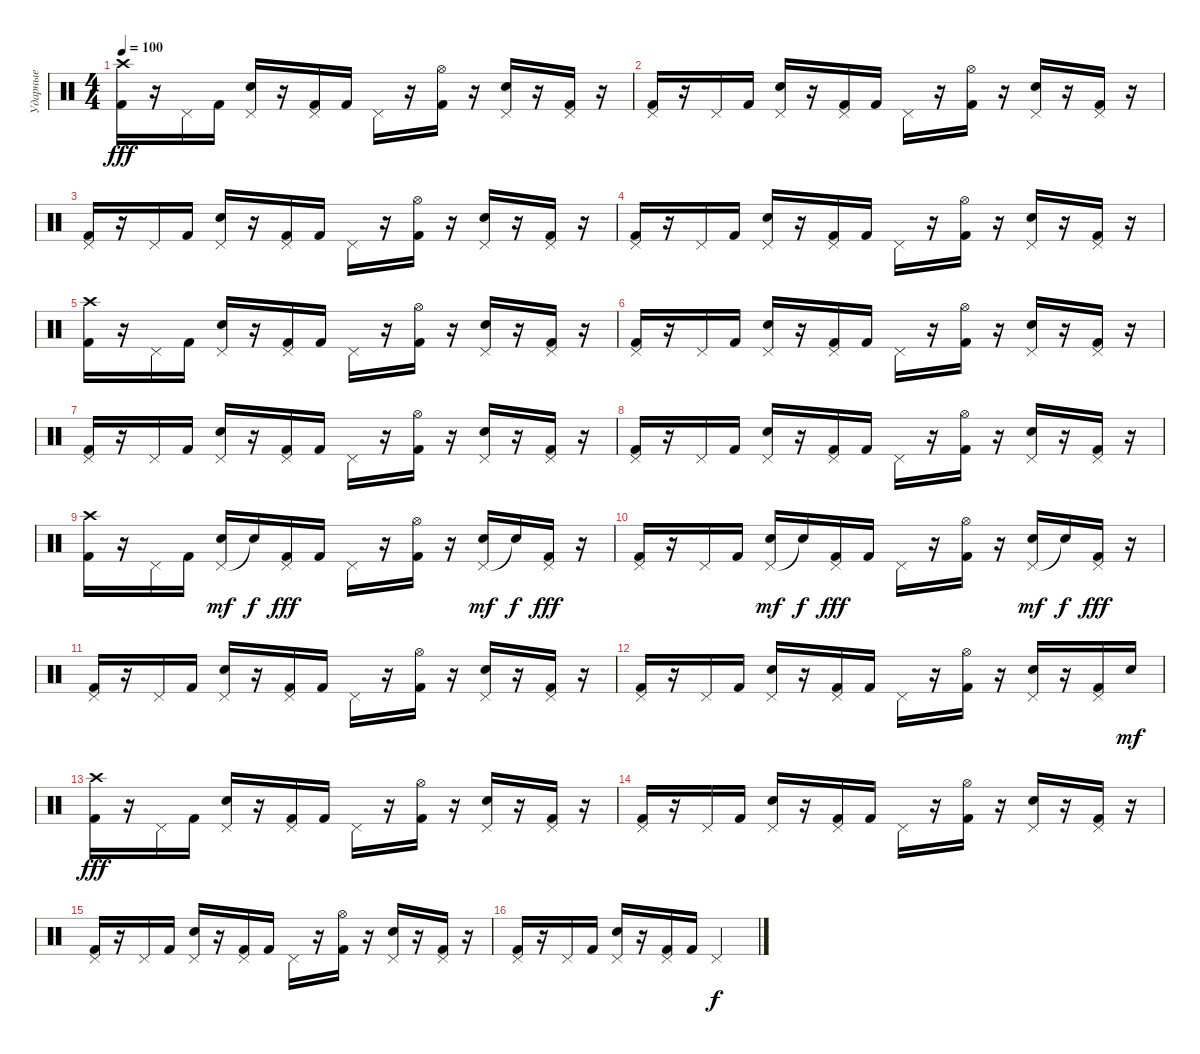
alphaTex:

\track ("Ударные" "Ударные") {instrument percussion}
\staff {score}
\articulation defaults
\ts (4 4)
\tempo 100
\clef neutral
\ks c
("Crash high (hit)" "Kick (hit) 2").16{dy fff} r.16 "Pedal Hi-Hat (hit)".16 "Kick (hit) 2".16 ("Pedal Hi-Hat (hit)" "Snare (hit) 2").16 r.16 ("Pedal Hi-Hat (hit)" "Kick (hit) 2").16 "Kick (hit) 2".16 "Pedal Hi-Hat (hit)".16 r.16 ("Hi-Hat (open)" "Kick (hit) 2").16 r.16 ("Pedal Hi-Hat (hit)" "Snare (hit) 2").16 r.16 ("Pedal Hi-Hat (hit)" "Kick (hit) 2").16 r.16 |
("Pedal Hi-Hat (hit)" "Kick (hit) 2").16 r.16 "Pedal Hi-Hat (hit)".16 "Kick (hit) 2".16 ("Pedal Hi-Hat (hit)" "Snare (hit) 2").16 r.16 ("Pedal Hi-Hat (hit)" "Kick (hit) 2").16 "Kick (hit) 2".16 "Pedal Hi-Hat (hit)".16 r.16 ("Hi-Hat (open)" "Kick (hit) 2").16 r.16 ("Pedal Hi-Hat (hit)" "Snare (hit) 2").16 r.16 ("Pedal Hi-Hat (hit)" "Kick (hit) 2").16 r.16 |
("Pedal Hi-Hat (hit)" "Kick (hit) 2").16 r.16 "Pedal Hi-Hat (hit)".16 "Kick (hit) 2".16 ("Pedal Hi-Hat (hit)" "Snare (hit) 2").16 r.16 ("Pedal Hi-Hat (hit)" "Kick (hit) 2").16 "Kick (hit) 2".16 "Pedal Hi-Hat (hit)".16 r.16 ("Hi-Hat (open)" "Kick (hit) 2").16 r.16 ("Pedal Hi-Hat (hit)" "Snare (hit) 2").16 r.16 ("Pedal Hi-Hat (hit)" "Kick (hit) 2").16 r.16 |
("Pedal Hi-Hat (hit)" "Kick (hit) 2").16 r.16 "Pedal Hi-Hat (hit)".16 "Kick (hit) 2".16 ("Pedal Hi-Hat (hit)" "Snare (hit) 2").16 r.16 ("Pedal Hi-Hat (hit)" "Kick (hit) 2").16 "Kick (hit) 2".16 "Pedal Hi-Hat (hit)".16 r.16 ("Hi-Hat (open)" "Kick (hit) 2").16 r.16 ("Pedal Hi-Hat (hit)" "Snare (hit) 2").16 r.16 ("Pedal Hi-Hat (hit)" "Kick (hit) 2").16 r.16 |
("Crash high (hit)" "Kick (hit) 2").16 r.16 "Pedal Hi-Hat (hit)".16 "Kick (hit) 2".16 ("Pedal Hi-Hat (hit)" "Snare (hit) 2").16 r.16 ("Pedal Hi-Hat (hit)" "Kick (hit) 2").16 "Kick (hit) 2".16 "Pedal Hi-Hat (hit)".16 r.16 ("Hi-Hat (open)" "Kick (hit) 2").16 r.16 ("Pedal Hi-Hat (hit)" "Snare (hit) 2").16 r.16 ("Pedal Hi-Hat (hit)" "Kick (hit) 2").16 r.16 |
("Pedal Hi-Hat (hit)" "Kick (hit) 2").16 r.16 "Pedal Hi-Hat (hit)".16 "Kick (hit) 2".16 ("Pedal Hi-Hat (hit)" "Snare (hit) 2").16 r.16 ("Pedal Hi-Hat (hit)" "Kick (hit) 2").16 "Kick (hit) 2".16 "Pedal Hi-Hat (hit)".16 r.16 ("Hi-Hat (open)" "Kick (hit) 2").16 r.16 ("Pedal Hi-Hat (hit)" "Snare (hit) 2").16 r.16 ("Pedal Hi-Hat (hit)" "Kick (hit) 2").16 r.16 |
("Pedal Hi-Hat (hit)" "Kick (hit) 2").16 r.16 "Pedal Hi-Hat (hit)".16 "Kick (hit) 2".16 ("Pedal Hi-Hat (hit)" "Snare (hit) 2").16 r.16 ("Pedal Hi-Hat (hit)" "Kick (hit) 2").16 "Kick (hit) 2".16 "Pedal Hi-Hat (hit)".16 r.16 ("Hi-Hat (open)" "Kick (hit) 2").16 r.16 ("Pedal Hi-Hat (hit)" "Snare (hit) 2").16 r.16 ("Pedal Hi-Hat (hit)" "Kick (hit) 2").16 r.16 |
("Pedal Hi-Hat (hit)" "Kick (hit) 2").16 r.16 "Pedal Hi-Hat (hit)".16 "Kick (hit) 2".16 ("Pedal Hi-Hat (hit)" "Snare (hit) 2").16 r.16 ("Pedal Hi-Hat (hit)" "Kick (hit) 2").16 "Kick (hit) 2".16 "Pedal Hi-Hat (hit)".16 r.16 ("Hi-Hat (open)" "Kick (hit) 2").16 r.16 ("Pedal Hi-Hat (hit)" "Snare (hit) 2").16 r.16 ("Pedal Hi-Hat (hit)" "Kick (hit) 2").16 r.16 |
("Crash high (hit)" "Kick (hit) 2").16 r.16 "Pedal Hi-Hat (hit)".16 "Kick (hit) 2".16 ("Pedal Hi-Hat (hit)" "Snare (hit) 2").16{dy mf} "Snare (hit)"{t}.16{dy f} ("Pedal Hi-Hat (hit)" "Kick (hit) 2").16{dy fff} "Kick (hit) 2".16 "Pedal Hi-Hat (hit)".16 r.16 ("Hi-Hat (open)" "Kick (hit) 2").16 r.16 ("Pedal Hi-Hat (hit)" "Snare (hit) 2").16{dy mf} "Snare (hit)"{t}.16{dy f} ("Pedal Hi-Hat (hit)" "Kick (hit) 2").16{dy fff} r.16 |
("Pedal Hi-Hat (hit)" "Kick (hit) 2").16 r.16 "Pedal Hi-Hat (hit)".16 "Kick (hit) 2".16 ("Pedal Hi-Hat (hit)" "Snare (hit) 2").16{dy mf} "Snare (hit)"{t}.16{dy f} ("Pedal Hi-Hat (hit)" "Kick (hit) 2").16{dy fff} "Kick (hit) 2".16 "Pedal Hi-Hat (hit)".16 r.16 ("Hi-Hat (open)" "Kick (hit) 2").16 r.16 ("Pedal Hi-Hat (hit)" "Snare (hit) 2").16{dy mf} "Snare (hit)"{t}.16{dy f} ("Pedal Hi-Hat (hit)" "Kick (hit) 2").16{dy fff} r.16 |
("Pedal Hi-Hat (hit)" "Kick (hit) 2").16 r.16 "Pedal Hi-Hat (hit)".16 "Kick (hit) 2".16 ("Pedal Hi-Hat (hit)" "Snare (hit) 2").16 r.16 ("Pedal Hi-Hat (hit)" "Kick (hit) 2").16 "Kick (hit) 2".16 "Pedal Hi-Hat (hit)".16 r.16 ("Hi-Hat (open)" "Kick (hit) 2").16 r.16 ("Pedal Hi-Hat (hit)" "Snare (hit) 2").16 r.16 ("Pedal Hi-Hat (hit)" "Kick (hit) 2").16 r.16 |
("Pedal Hi-Hat (hit)" "Kick (hit) 2").16 r.16 "Pedal Hi-Hat (hit)".16 "Kick (hit) 2".16 ("Pedal Hi-Hat (hit)" "Snare (hit) 2").16 r.16 ("Pedal Hi-Hat (hit)" "Kick (hit) 2").16 "Kick (hit) 2".16 "Pedal Hi-Hat (hit)".16 r.16 ("Hi-Hat (open)" "Kick (hit) 2").16 r.16 ("Pedal Hi-Hat (hit)" "Snare (hit) 2").16 r.16 ("Pedal Hi-Hat (hit)" "Kick (hit) 2").16 "Snare (hit) 2".16{dy mf} |
("Crash high (hit)" "Kick (hit) 2").16{dy fff} r.16 "Pedal Hi-Hat (hit)".16 "Kick (hit) 2".16 ("Pedal Hi-Hat (hit)" "Snare (hit) 2").16 r.16 ("Pedal Hi-Hat (hit)" "Kick (hit) 2").16 "Kick (hit) 2".16 "Pedal Hi-Hat (hit)".16 r.16 ("Hi-Hat (open)" "Kick (hit) 2").16 r.16 ("Pedal Hi-Hat (hit)" "Snare (hit) 2").16 r.16 ("Pedal Hi-Hat (hit)" "Kick (hit) 2").16 r.16 |
("Pedal Hi-Hat (hit)" "Kick (hit) 2").16 r.16 "Pedal Hi-Hat (hit)".16 "Kick (hit) 2".16 ("Pedal Hi-Hat (hit)" "Snare (hit) 2").16 r.16 ("Pedal Hi-Hat (hit)" "Kick (hit) 2").16 "Kick (hit) 2".16 "Pedal Hi-Hat (hit)".16 r.16 ("Hi-Hat (open)" "Kick (hit) 2").16 r.16 ("Pedal Hi-Hat (hit)" "Snare (hit) 2").16 r.16 ("Pedal Hi-Hat (hit)" "Kick (hit) 2").16 r.16 |
("Pedal Hi-Hat (hit)" "Kick (hit) 2").16 r.16 "Pedal Hi-Hat (hit)".16 "Kick (hit) 2".16 ("Pedal Hi-Hat (hit)" "Snare (hit) 2").16 r.16 ("Pedal Hi-Hat (hit)" "Kick (hit) 2").16 "Kick (hit) 2".16 "Pedal Hi-Hat (hit)".16 r.16 ("Hi-Hat (open)" "Kick (hit) 2").16 r.16 ("Pedal Hi-Hat (hit)" "Snare (hit) 2").16 r.16 ("Pedal Hi-Hat (hit)" "Kick (hit) 2").16 r.16 |
("Pedal Hi-Hat (hit)" "Kick (hit) 2").16 r.16 "Pedal Hi-Hat (hit)".16 "Kick (hit) 2".16 ("Pedal Hi-Hat (hit)" "Snare (hit) 2").16 r.16 ("Pedal Hi-Hat (hit)" "Kick (hit) 2").16 "Kick (hit) 2".16 "Pedal Hi-Hat (hit)".2{dy f}
